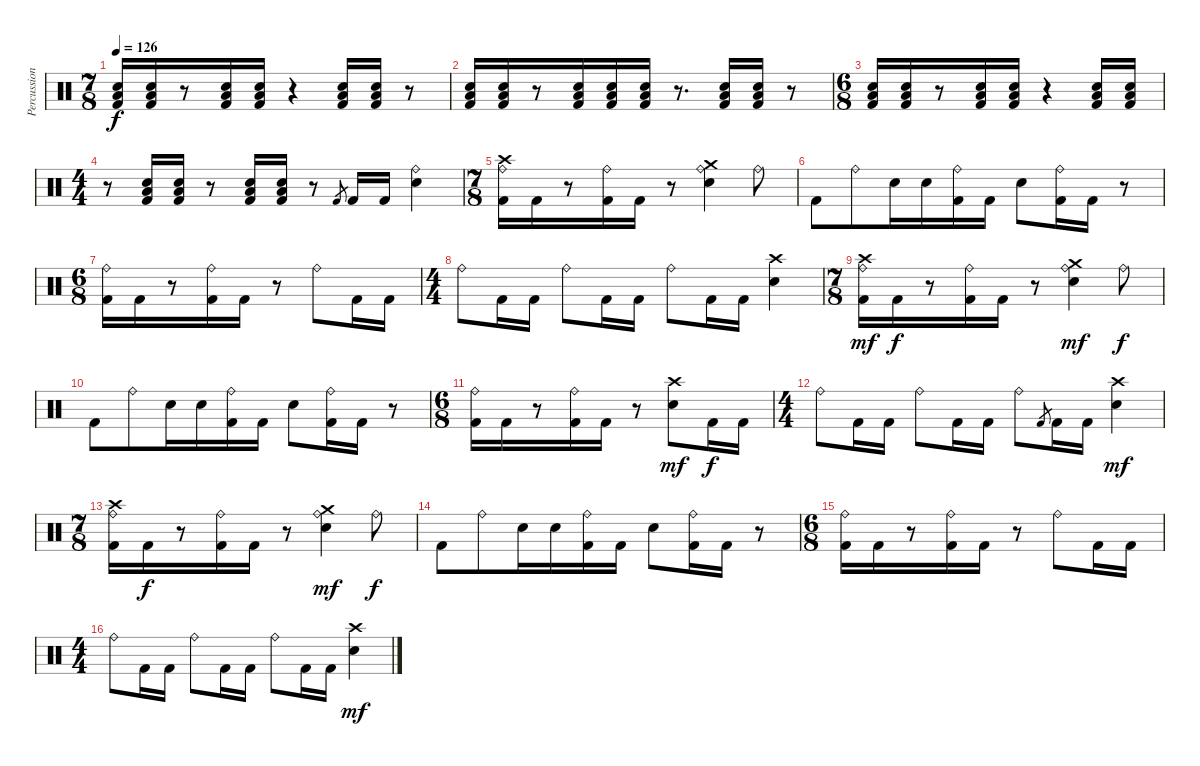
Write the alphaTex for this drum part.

\track ("Percussion" "Percussion") {instrument percussion}
\staff {score}
\articulation defaults
\ts (7 8)
\tempo 126
\clef neutral
\ks c
("Kick (hit) 2" "Electric Snare (hit)" "Low Floor Tom (hit)").16{dy f} ("Kick (hit) 2" "Low Floor Tom (hit)" "Electric Snare (hit)").16 r.8 ("Kick (hit) 2" "Low Floor Tom (hit)" "Electric Snare (hit)").16 ("Kick (hit) 2" "Low Floor Tom (hit)" "Electric Snare (hit)").16 r.4 ("Kick (hit) 2" "Low Floor Tom (hit)" "Electric Snare (hit)").16 ("Kick (hit) 2" "Low Floor Tom (hit)" "Electric Snare (hit)").16 r.8 |
("Kick (hit) 2" "Low Floor Tom (hit)" "Electric Snare (hit)").16 ("Kick (hit) 2" "Low Floor Tom (hit)" "Electric Snare (hit)").16 r.8 ("Kick (hit) 2" "Low Floor Tom (hit)" "Electric Snare (hit)").16 ("Kick (hit) 2" "Low Floor Tom (hit)" "Electric Snare (hit)").16 ("Kick (hit) 2" "Low Floor Tom (hit)" "Electric Snare (hit)").16 r.8{d} ("Kick (hit) 2" "Low Floor Tom (hit)" "Electric Snare (hit)").16 ("Kick (hit) 2" "Low Floor Tom (hit)" "Electric Snare (hit)").16 r.8 |
\ts (6 8)
("Kick (hit) 2" "Low Floor Tom (hit)" "Electric Snare (hit)").16 ("Kick (hit) 2" "Low Floor Tom (hit)" "Electric Snare (hit)").16 r.8 ("Kick (hit) 2" "Low Floor Tom (hit)" "Electric Snare (hit)").16 ("Kick (hit) 2" "Low Floor Tom (hit)" "Electric Snare (hit)").16 r.4 ("Kick (hit) 2" "Electric Snare (hit)" "Low Floor Tom (hit)").16 ("Kick (hit) 2" "Low Floor Tom (hit)" "Electric Snare (hit)").16 |
\ts (4 4)
r.8 ("Kick (hit) 2" "Low Floor Tom (hit)" "Electric Snare (hit)").16 ("Kick (hit) 2" "Low Floor Tom (hit)" "Electric Snare (hit)").16 r.8 ("Kick (hit) 2" "Low Floor Tom (hit)" "Electric Snare (hit)").16 ("Kick (hit) 2" "Low Floor Tom (hit)" "Electric Snare (hit)").16 r.8 "Kick (hit) 2".8{gr} "Kick (hit) 2".16 "Kick (hit) 2".16 ("Ride (bell)" "Electric Snare (hit)").4 |
\ts (7 8)
("Crash high (hit)" "Ride (bell)" "Kick (hit) 2").16 "Kick (hit) 2".16 r.8 ("Ride (bell)" "Kick (hit) 2").16 "Kick (hit) 2".16 r.8 ("Crash medium (hit)" "Ride (bell)" "Electric Snare (hit)").4 "Ride (bell)".8 |
"Kick (hit) 2".8 "Ride (bell)".8 "Electric Snare (hit)".16 "Electric Snare (hit)".16 ("Ride (bell)" "Kick (hit) 2").16 "Kick (hit) 2".16 "Electric Snare (hit)".8 ("Ride (bell)" "Kick (hit) 2").16 "Kick (hit) 2".16 r.8 |
\ts (6 8)
("Ride (bell)" "Kick (hit) 2").16 "Kick (hit) 2".16 r.8 ("Ride (bell)" "Kick (hit) 2").16 "Kick (hit) 2".16 r.8 "Ride (bell)".8 "Kick (hit) 2".16 "Kick (hit) 2".16 |
\ts (4 4)
"Ride (bell)".8 "Kick (hit) 2".16 "Kick (hit) 2".16 "Ride (bell)".8 "Kick (hit) 2".16 "Kick (hit) 2".16 "Ride (bell)".8 "Kick (hit) 2".16 "Kick (hit) 2".16 ("Crash high (hit)" "Electric Snare (hit)").4 |
\ts (7 8)
("Crash high (hit)" "Ride (bell)" "Kick (hit) 2").16{dy mf} "Kick (hit) 2".16{dy f} r.8 ("Ride (bell)" "Kick (hit) 2").16 "Kick (hit) 2".16 r.8 ("Crash medium (hit)" "Ride (bell)" "Electric Snare (hit)").4{dy mf} "Ride (bell)".8{dy f} |
"Kick (hit) 2".8 "Ride (bell)".8 "Electric Snare (hit)".16 "Electric Snare (hit)".16 ("Ride (bell)" "Kick (hit) 2").16 "Kick (hit) 2".16 "Electric Snare (hit)".8 ("Ride (bell)" "Kick (hit) 2").16 "Kick (hit) 2".16 r.8 |
\ts (6 8)
("Ride (bell)" "Kick (hit) 2").16 "Kick (hit) 2".16 r.8 ("Ride (bell)" "Kick (hit) 2").16 "Kick (hit) 2".16 r.8 ("Crash high (hit)" "Electric Snare (hit)").8{dy mf} "Kick (hit) 2".16{dy f} "Kick (hit) 2".16 |
\ts (4 4)
"Ride (bell)".8 "Kick (hit) 2".16 "Kick (hit) 2".16 "Ride (bell)".8 "Kick (hit) 2".16 "Kick (hit) 2".16 "Ride (bell)".8 "Kick (hit) 2".8{gr} "Kick (hit) 2".16 "Kick (hit) 2".16 ("Crash high (hit)" "Electric Snare (hit)").4{dy mf} |
\ts (7 8)
("Crash high (hit)" "Ride (bell)" "Kick (hit) 2").16 "Kick (hit) 2".16{dy f} r.8 ("Ride (bell)" "Kick (hit) 2").16 "Kick (hit) 2".16 r.8 ("Crash medium (hit)" "Ride (bell)" "Electric Snare (hit)").4{dy mf} "Ride (bell)".8{dy f} |
"Kick (hit) 2".8 "Ride (bell)".8 "Electric Snare (hit)".16 "Electric Snare (hit)".16 ("Ride (bell)" "Kick (hit) 2").16 "Kick (hit) 2".16 "Electric Snare (hit)".8 ("Ride (bell)" "Kick (hit) 2").16 "Kick (hit) 2".16 r.8 |
\ts (6 8)
("Ride (bell)" "Kick (hit) 2").16 "Kick (hit) 2".16 r.8 ("Ride (bell)" "Kick (hit) 2").16 "Kick (hit) 2".16 r.8 "Ride (bell)".8 "Kick (hit) 2".16 "Kick (hit) 2".16 |
\ts (4 4)
"Ride (bell)".8 "Kick (hit) 2".16 "Kick (hit) 2".16 "Ride (bell)".8 "Kick (hit) 2".16 "Kick (hit) 2".16 "Ride (bell)".8 "Kick (hit) 2".16 "Kick (hit) 2".16 ("Crash high (hit)" "Electric Snare (hit)").4{dy mf}
